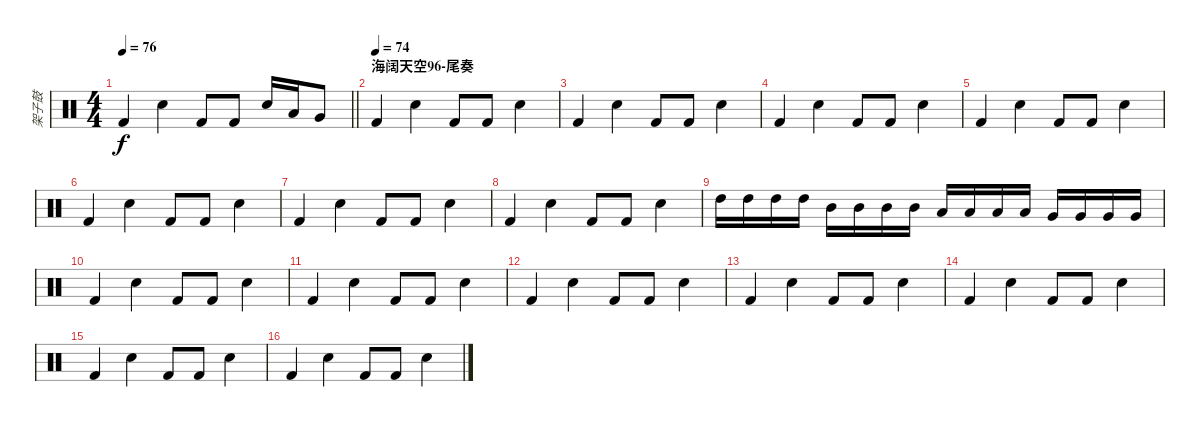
\track ("架子鼓" "架子鼓") {instrument percussion}
\staff {score}
\articulation defaults
\ts (4 4)
\tempo 76
\clef neutral
\barLineRight lightlight
\ks c "Kick (hit) 2".4{dy f} "Electric Snare (hit)".4 "Kick (hit) 2".8 "Kick (hit) 2".8 "Electric Snare (hit)".16 "Low Tom (hit)".16 "Very Low Tom (hit)".8
|
\section ("" "海阔天空96-尾奏")
\tempo (74)
"Kick (hit) 2".4 "Electric Snare (hit)".4 "Kick (hit) 2".8 "Kick (hit) 2".8 "Electric Snare (hit)".4 |
"Kick (hit) 2".4 "Electric Snare (hit)".4 "Kick (hit) 2".8 "Kick (hit) 2".8 "Electric Snare (hit)".4 |
"Kick (hit) 2".4 "Electric Snare (hit)".4 "Kick (hit) 2".8 "Kick (hit) 2".8 "Electric Snare (hit)".4 |
"Kick (hit) 2".4 "Electric Snare (hit)".4 "Kick (hit) 2".8 "Kick (hit) 2".8 "Electric Snare (hit)".4 |
"Kick (hit) 2".4 "Electric Snare (hit)".4 "Kick (hit) 2".8 "Kick (hit) 2".8 "Electric Snare (hit)".4 |
"Kick (hit) 2".4 "Electric Snare (hit)".4 "Kick (hit) 2".8 "Kick (hit) 2".8 "Electric Snare (hit)".4 |
"Kick (hit) 2".4 "Electric Snare (hit)".4 "Kick (hit) 2".8 "Kick (hit) 2".8 "Electric Snare (hit)".4 |
"High Tom (hit)".16 "High Tom (hit)".16 "High Tom (hit)".16 "High Tom (hit)".16 "Mid Tom (hit)".16 "Mid Tom (hit)".16 "Mid Tom (hit)".16 "Mid Tom (hit)".16 "Low Tom (hit)".16 "Low Tom (hit)".16 "Low Tom (hit)".16 "Low Tom (hit)".16 "Very Low Tom (hit)".16 "Very Low Tom (hit)".16 "Very Low Tom (hit)".16 "Very Low Tom (hit)".16 |
"Kick (hit) 2".4 "Electric Snare (hit)".4 "Kick (hit) 2".8 "Kick (hit) 2".8 "Electric Snare (hit)".4 |
"Kick (hit) 2".4 "Electric Snare (hit)".4 "Kick (hit) 2".8 "Kick (hit) 2".8 "Electric Snare (hit)".4 |
"Kick (hit) 2".4 "Electric Snare (hit)".4 "Kick (hit) 2".8 "Kick (hit) 2".8 "Electric Snare (hit)".4 |
"Kick (hit) 2".4 "Electric Snare (hit)".4 "Kick (hit) 2".8 "Kick (hit) 2".8 "Electric Snare (hit)".4 |
"Kick (hit) 2".4 "Electric Snare (hit)".4 "Kick (hit) 2".8 "Kick (hit) 2".8 "Electric Snare (hit)".4 |
"Kick (hit) 2".4 "Electric Snare (hit)".4 "Kick (hit) 2".8 "Kick (hit) 2".8 "Electric Snare (hit)".4 |
"Kick (hit) 2".4 "Electric Snare (hit)".4 "Kick (hit) 2".8 "Kick (hit) 2".8 "Electric Snare (hit)".4
